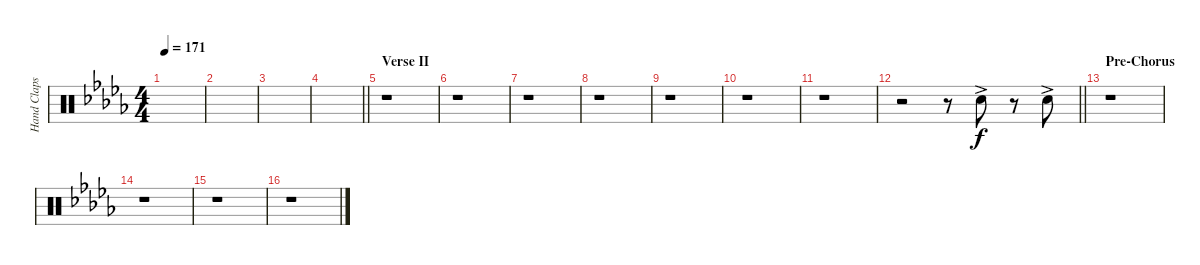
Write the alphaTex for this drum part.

\track ("Hand Claps" "Hand Claps") {instrument percussion}
\staff {score}
\articulation defaults
\ts (4 4)
\tempo 171
\clef neutral
\ks db
|
|
|
\barLineRight lightlight
|
\section ("" "Verse II")
r.1 |
r.1 |
r.1 |
r.1 |
r.1 |
r.1 |
r.1 |
\barLineRight lightlight
r.2 r.8 "Hand Clap (hit)"{ac}.8 r.8 "Hand Clap (hit)"{ac}.8 |
\section ("" "Pre-Chorus")
r.1 |
r.1 |
r.1 |
r.1
